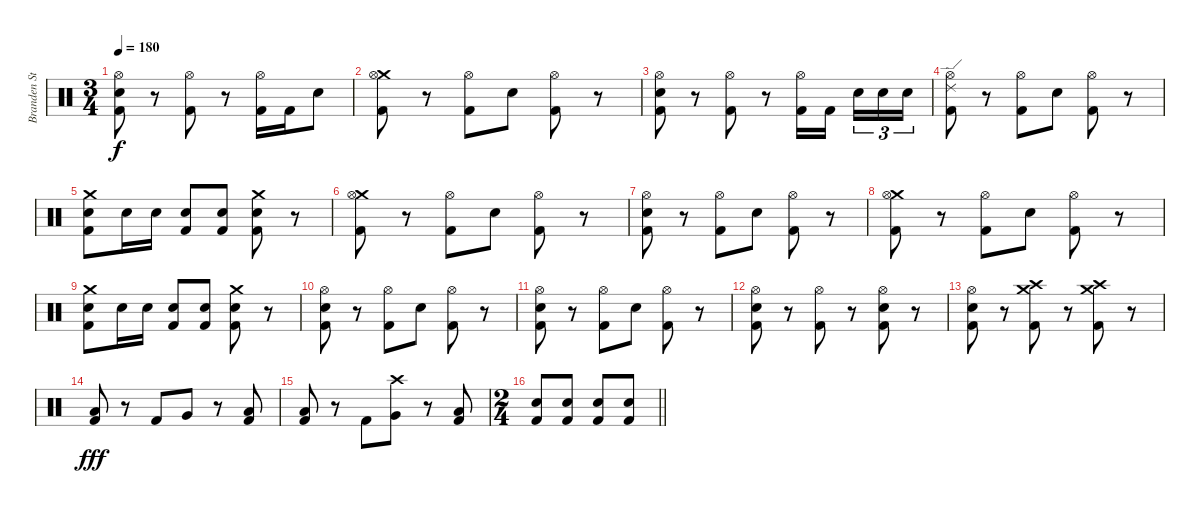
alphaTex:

\track ("Branden Steineckert" "Branden St") {instrument percussion}
\staff {score}
\articulation defaults
\ts (3 4)
\tempo 180
\clef neutral
\ks c
("Hi-Hat (open)" "Electric Snare (hit)" "Kick (hit) 2").8{dy f} r.8 ("Hi-Hat (open)" "Kick (hit) 2").8 r.8 ("Hi-Hat (open)" "Kick (hit) 2").16 "Kick (hit) 2".16 "Electric Snare (hit)".8 |
("Crash medium (hit)" "Hi-Hat (open)" "Kick (hit) 2").8 r.8 ("Hi-Hat (open)" "Kick (hit) 2").8 "Electric Snare (hit)".8 ("Hi-Hat (open)" "Kick (hit) 2").8 r.8 |
("Hi-Hat (open)" "Electric Snare (hit)" "Kick (hit) 2").8 r.8 ("Hi-Hat (open)" "Kick (hit) 2").8 r.8 ("Hi-Hat (open)" "Kick (hit) 2").16 "Kick (hit) 2".16 "Electric Snare (hit)".16{tu (3 2)} "Electric Snare (hit)".16{tu (3 2)} "Electric Snare (hit)".16{tu (3 2)} |
("Ride (edge) 2" "Hi-Hat (open)" "Kick (hit) 2").8 r.8 ("Hi-Hat (open)" "Kick (hit) 2").8 "Electric Snare (hit)".8 ("Hi-Hat (open)" "Kick (hit) 2").8 r.8 |
("Crash medium (hit)" "Electric Snare (hit)" "Kick (hit) 2").8 "Electric Snare (hit)".16 "Electric Snare (hit)".16 ("Electric Snare (hit)" "Kick (hit) 2").8 ("Electric Snare (hit)" "Kick (hit) 2").8 ("Crash medium (hit)" "Electric Snare (hit)" "Kick (hit) 2").8 r.8 |
("Crash medium (hit)" "Hi-Hat (open)" "Kick (hit) 2").8 r.8 ("Hi-Hat (open)" "Kick (hit) 2").8 "Electric Snare (hit)".8 ("Hi-Hat (open)" "Kick (hit) 2").8 r.8 |
("Hi-Hat (open)" "Electric Snare (hit)" "Kick (hit) 2").8 r.8 ("Hi-Hat (open)" "Kick (hit) 2").8 "Electric Snare (hit)".8 ("Hi-Hat (open)" "Kick (hit) 2").8 r.8 |
("Crash medium (hit)" "Hi-Hat (open)" "Kick (hit) 2").8 r.8 ("Hi-Hat (open)" "Kick (hit) 2").8 "Electric Snare (hit)".8 ("Hi-Hat (open)" "Kick (hit) 2").8 r.8 |
("Crash medium (hit)" "Electric Snare (hit)" "Kick (hit) 2").8 "Electric Snare (hit)".16 "Electric Snare (hit)".16 ("Electric Snare (hit)" "Kick (hit) 2").8 ("Electric Snare (hit)" "Kick (hit) 2").8 ("Crash medium (hit)" "Electric Snare (hit)" "Kick (hit) 2").8 r.8 |
("Hi-Hat (open)" "Electric Snare (hit)" "Kick (hit) 2").8 r.8 ("Hi-Hat (open)" "Kick (hit) 2").8 "Electric Snare (hit)".8 ("Hi-Hat (open)" "Kick (hit) 2").8 r.8 |
("Hi-Hat (open)" "Electric Snare (hit)" "Kick (hit) 2").8 r.8 ("Hi-Hat (open)" "Kick (hit) 2").8 "Electric Snare (hit)".8 ("Hi-Hat (open)" "Kick (hit) 2").8 r.8 |
("Hi-Hat (open)" "Electric Snare (hit)" "Kick (hit) 2").8 r.8 ("Hi-Hat (open)" "Kick (hit) 2").8 r.8 ("Hi-Hat (open)" "Electric Snare (hit)" "Kick (hit) 2").8 r.8 |
("Hi-Hat (open)" "Electric Snare (hit)" "Kick (hit) 2").8 r.8 ("Crash medium (hit)" "Crash high (hit)" "Kick (hit) 2").8 r.8 ("Crash medium (hit)" "Crash high (hit)" "Kick (hit) 2").8 r.8 |
("Low Floor Tom (hit)" "Kick (hit) 2").8{dy fff} r.8 "Kick (hit) 2".8 "Very Low Tom (hit)".8 r.8 ("Low Floor Tom (hit)" "Kick (hit) 2").8 |
("Low Floor Tom (hit)" "Kick (hit) 2").8 r.8 "Kick (hit) 2".8 ("Crash high (hit)" "Very Low Tom (hit)").8 r.8 ("Low Floor Tom (hit)" "Kick (hit) 2").8 |
\ts (2 4)
\barLineRight lightlight
("Electric Snare (hit)" "Kick (hit) 2").8 ("Electric Snare (hit)" "Kick (hit) 2").8 ("Electric Snare (hit)" "Kick (hit) 2").8 ("Electric Snare (hit)" "Kick (hit) 2").8
